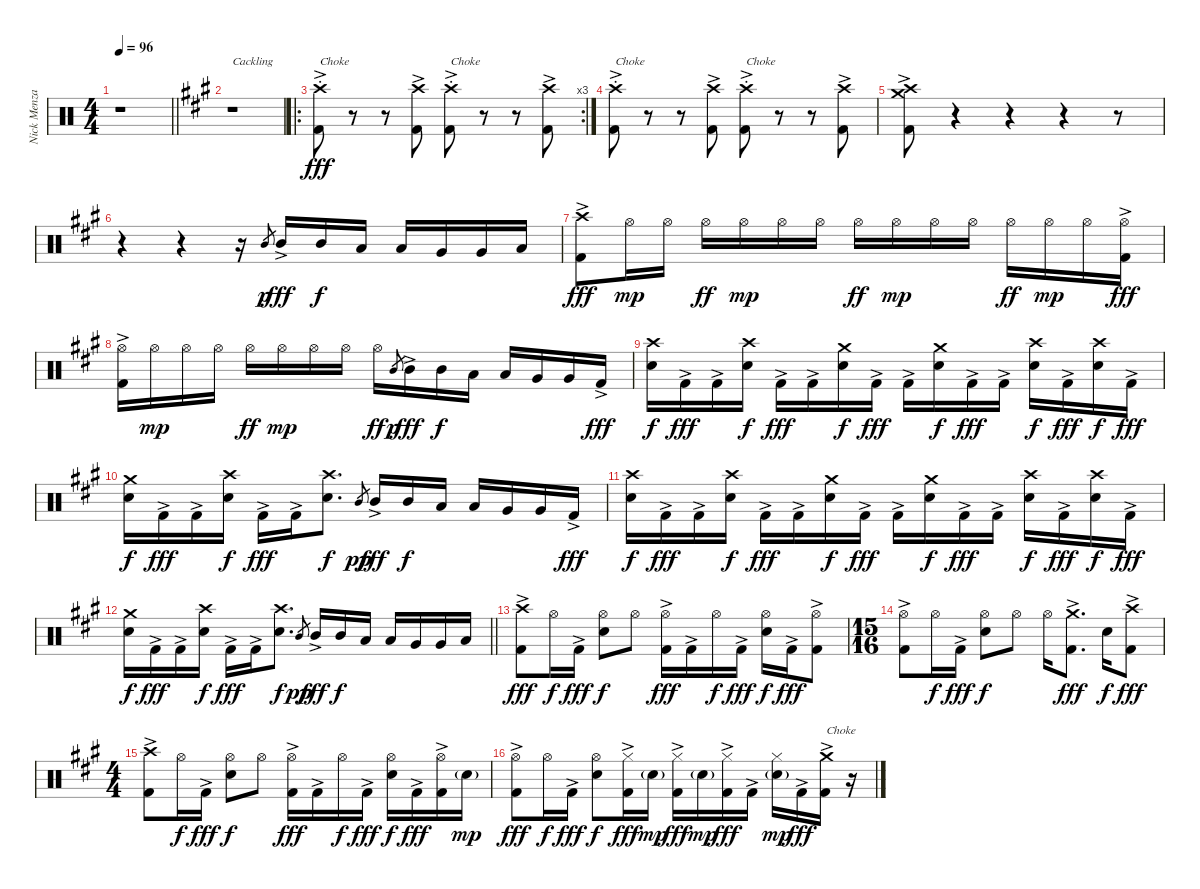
\track ("Nick Menza" "Nick Menza") {instrument percussion}
\staff {score}
\articulation defaults
\ts (4 4)
\tempo 96
\clef neutral
\barLineRight lightlight
\ks c
r.1{dy fff} |
\ks f#minor
r.1{txt "Cackling"} |
\ro
\rc 3
("Crash high (hit)"{st} "Kick (hit) 2"{ac}).8{txt "Choke "} r.8 r.8 ("Crash high (hit)" "Kick (hit) 2"{ac}).8 ("Crash high (hit)"{st} "Kick (hit) 2"{ac}).8{txt "Choke"} r.8 r.8 ("Crash high (hit)" "Kick (hit) 2"{ac}).8 |
("Crash high (hit)"{st} "Kick (hit) 2"{ac}).8{txt "Choke"} r.8 r.8 ("Crash high (hit)" "Kick (hit) 2"{ac}).8 ("Crash high (hit)"{st} "Kick (hit) 2"{ac}).8{txt "Choke"} r.8 r.8 ("Crash high (hit)" "Kick (hit) 2"{ac}).8 |
("Crash high (hit)" "Crash medium (hit)" "Kick (hit) 2"{ac}).8 r.4 r.4 r.4 r.8 |
r.4 r.4 r.16 "Mid Tom (hit)".8{gr dy p} "Mid Tom (hit)"{ac}.16{dy fff} "Mid Tom (hit)".16{dy f} "Low Tom (hit)".16 "Low Tom (hit)".16 "Very Low Tom (hit)".16 "Very Low Tom (hit)".16 "Low Floor Tom (hit)".16 |
("Crash high (hit)" "Kick (hit) 2"{ac}).8{dy fff} "Hi-Hat (open)".16{dy mp} "Hi-Hat (open)".16 "Hi-Hat (open)".16{dy ff} "Hi-Hat (open)".16{dy mp} "Hi-Hat (open)".16 "Hi-Hat (open)".16 "Hi-Hat (open)".16{dy ff} "Hi-Hat (open)".16{dy mp} "Hi-Hat (open)".16 "Hi-Hat (open)".16 "Hi-Hat (open)".16{dy ff} "Hi-Hat (open)".16{dy mp} "Hi-Hat (open)".16 ("Hi-Hat (open)" "Kick (hit) 2"{ac}).16{dy fff} |
("Hi-Hat (open)" "Kick (hit) 2"{ac}).16 "Hi-Hat (open)".16{dy mp} "Hi-Hat (open)".16 "Hi-Hat (open)".16 "Hi-Hat (open)".16{dy ff} "Hi-Hat (open)".16{dy mp} "Hi-Hat (open)".16 "Hi-Hat (open)".16 "Hi-Hat (open)".16{dy ff} "Mid Tom (hit)".8{gr dy p} "Mid Tom (hit)"{ac}.16{dy fff} "Mid Tom (hit)".16{dy f} "Low Tom (hit)".16 "Low Tom (hit)".16 "Very Low Tom (hit)".16 "Very Low Tom (hit)".16 "Kick (hit) 2"{ac}.16{dy fff} |
("Crash high (hit)" "Snare (hit) 2").16{dy f} "Kick (hit) 2"{ac}.16{dy fff} "Kick (hit) 2"{ac}.16 ("Crash high (hit)" "Snare (hit) 2").16{dy f} "Kick (hit) 2"{ac}.16{dy fff} "Kick (hit) 2"{ac}.16 ("Crash medium (hit)" "Snare (hit) 2").16{dy f} "Kick (hit) 2"{ac}.16{dy fff} "Kick (hit) 2"{ac}.16 ("Crash medium (hit)" "Snare (hit) 2").16{dy f} "Kick (hit) 2"{ac}.16{dy fff} "Kick (hit) 2"{ac}.16 ("Crash high (hit)" "Snare (hit) 2").16{dy f} "Kick (hit) 2"{ac}.16{dy fff} ("Crash high (hit)" "Snare (hit) 2").16{dy f} "Kick (hit) 2"{ac}.16{dy fff} |
("Crash medium (hit)" "Snare (hit) 2").16{dy f} "Kick (hit) 2"{ac}.16{dy fff} "Kick (hit) 2"{ac}.16 ("Crash high (hit)" "Snare (hit) 2").16{dy f} "Kick (hit) 2"{ac}.16{dy fff} "Kick (hit) 2"{ac}.16 ("Crash high (hit)" "Snare (hit) 2").8{d dy f} "Mid Tom (hit)".8{gr dy pp} "Mid Tom (hit)"{ac}.16{dy fff} "Mid Tom (hit)".16{dy f} "Low Tom (hit)".16 "Low Tom (hit)".16 "Very Low Tom (hit)".16 "Very Low Tom (hit)".16 "Kick (hit) 2"{ac}.16{dy fff} |
("Crash high (hit)" "Snare (hit) 2").16{dy f} "Kick (hit) 2"{ac}.16{dy fff} "Kick (hit) 2"{ac}.16 ("Crash high (hit)" "Snare (hit) 2").16{dy f} "Kick (hit) 2"{ac}.16{dy fff} "Kick (hit) 2"{ac}.16 ("Crash medium (hit)" "Snare (hit) 2").16{dy f} "Kick (hit) 2"{ac}.16{dy fff} "Kick (hit) 2"{ac}.16 ("Crash medium (hit)" "Snare (hit) 2").16{dy f} "Kick (hit) 2"{ac}.16{dy fff} "Kick (hit) 2"{ac}.16 ("Crash high (hit)" "Snare (hit) 2").16{dy f} "Kick (hit) 2"{ac}.16{dy fff} ("Crash high (hit)" "Snare (hit) 2").16{dy f} "Kick (hit) 2"{ac}.16{dy fff} |
\barLineRight lightlight
("Crash medium (hit)" "Snare (hit) 2").16{dy f} "Kick (hit) 2"{ac}.16{dy fff} "Kick (hit) 2"{ac}.16 ("Crash high (hit)" "Snare (hit) 2").16{dy f} "Kick (hit) 2"{ac}.16{dy fff} "Kick (hit) 2"{ac}.16 ("Crash high (hit)" "Snare (hit) 2").8{d dy f} "Mid Tom (hit)".8{gr dy pp} "Mid Tom (hit)"{ac}.16{dy fff} "Mid Tom (hit)".16{dy f} "Low Tom (hit)".16 "Low Tom (hit)".16 "Very Low Tom (hit)".16 "Very Low Tom (hit)".16 "Low Floor Tom (hit)".16 |
("Crash high (hit)" "Kick (hit) 2"{ac}).8{dy fff} "Hi-Hat (open)".16{dy f} "Kick (hit) 2"{ac}.16{dy fff} ("Hi-Hat (open)" "Snare (hit) 2").8{dy f} "Hi-Hat (open)".8 ("Hi-Hat (open)" "Kick (hit) 2"{ac}).16{dy fff} "Kick (hit) 2"{ac}.16 "Hi-Hat (open)".16{dy f} "Kick (hit) 2"{ac}.16{dy fff} ("Hi-Hat (open)" "Snare (hit) 2").16{dy f} "Kick (hit) 2"{ac}.16{dy fff} ("Hi-Hat (open)" "Kick (hit) 2"{ac}).8 |
\ts (15 16)
("Hi-Hat (open)" "Kick (hit) 2"{ac}).8 "Hi-Hat (open)".16{dy f} "Kick (hit) 2"{ac}.16{dy fff} ("Hi-Hat (open)" "Snare (hit) 2").8{dy f} "Hi-Hat (open)".8 "Hi-Hat (open)".16 ("Crash medium (hit)" "Kick (hit) 2"{ac}).8{d dy fff} "Snare (hit) 2".16{dy f} ("Crash high (hit)" "Kick (hit) 2"{ac}).8{dy fff} |
\ts (4 4)
("Crash high (hit)" "Kick (hit) 2"{ac}).8 "Hi-Hat (open)".16{dy f} "Kick (hit) 2"{ac}.16{dy fff} ("Hi-Hat (open)" "Snare (hit) 2").8{dy f} "Hi-Hat (open)".8 ("Hi-Hat (open)" "Kick (hit) 2"{ac}).16{dy fff} "Kick (hit) 2"{ac}.16 "Hi-Hat (open)".16{dy f} "Kick (hit) 2"{ac}.16{dy fff} ("Hi-Hat (open)" "Snare (hit) 2").16{dy f} "Kick (hit) 2"{ac}.16{dy fff} ("Hi-Hat (open)" "Kick (hit) 2"{ac}).16 "Snare (hit) 2"{g}.16{dy mp} |
("Hi-Hat (open)" "Kick (hit) 2"{ac}).8{dy fff} "Hi-Hat (open)".16{dy f} "Kick (hit) 2"{ac}.16{dy fff} ("Hi-Hat (open)" "Snare (hit) 2").8{dy f} ("Hi-Hat (closed)" "Kick (hit) 2"{ac}).16{dy fff} "Snare (hit) 2"{g}.16{dy mp} ("Hi-Hat (closed)" "Kick (hit) 2"{ac}).16{dy fff} "Snare (hit) 2"{g}.16{dy mp} ("Hi-Hat (closed)" "Kick (hit) 2"{ac}).16{dy fff} "Kick (hit) 2"{ac}.16 ("Hi-Hat (closed)" "Snare (hit) 2"{g}).16{dy mp} "Kick (hit) 2"{ac}.16{dy fff} ("Crash medium (hit)" "Kick (hit) 2"{ac}).16{txt "Choke"} r.16
